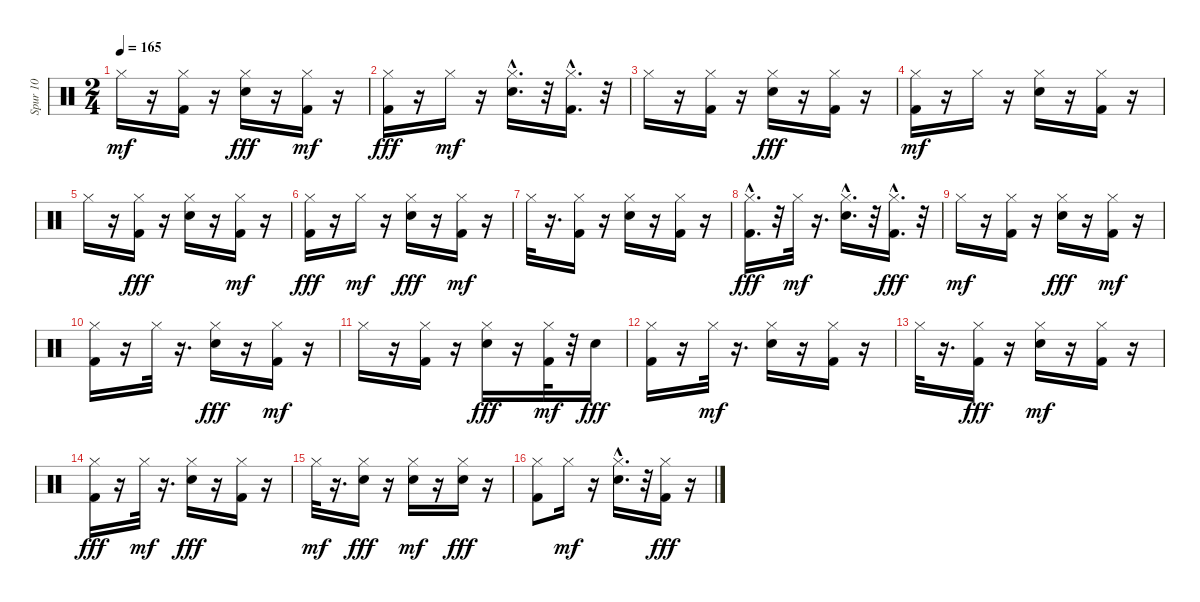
\track ("Spur 10" "Spur 10") {instrument percussion}
\staff {score}
\articulation defaults
\ts (2 4)
\tempo 165
\clef neutral
\ks c "Hi-Hat (closed)".16{dy mf}
r.16 ("Kick (hit) 2" "Hi-Hat (closed)").16 r.16 ("Hi-Hat (closed)" "Electric Snare (hit)").16{dy fff} r.16 ("Kick (hit) 2" "Hi-Hat (closed)").16{dy mf} r.16 |
("Hi-Hat (closed)" "Kick (hit) 2").16{dy fff} r.16 "Hi-Hat (closed)".16{dy mf} r.16 ("Electric Snare (hit)"{hac} "Hi-Hat (closed)").16{d} r.32 ("Kick (hit) 2"{hac} "Hi-Hat (closed)").16{d} r.32 |
"Hi-Hat (closed)".16 r.16 ("Kick (hit) 2" "Hi-Hat (closed)").16 r.16 ("Hi-Hat (closed)" "Electric Snare (hit)").16{dy fff} r.16 ("Hi-Hat (closed)" "Kick (hit) 2").16 r.16 |
("Kick (hit) 2" "Hi-Hat (closed)").16{dy mf} r.16 "Hi-Hat (closed)".16 r.16 ("Electric Snare (hit)" "Hi-Hat (closed)").16 r.16 ("Kick (hit) 2" "Hi-Hat (closed)").16 r.16 |
"Hi-Hat (closed)".16 r.16 ("Hi-Hat (closed)" "Kick (hit) 2").16{dy fff} r.16 ("Hi-Hat (closed)" "Electric Snare (hit)").16 r.16 ("Kick (hit) 2" "Hi-Hat (closed)").16{dy mf} r.16 |
("Hi-Hat (closed)" "Kick (hit) 2").16{dy fff} r.16 "Hi-Hat (closed)".16{dy mf} r.16 ("Hi-Hat (closed)" "Electric Snare (hit)").16{dy fff} r.16 ("Kick (hit) 2" "Hi-Hat (closed)").16{dy mf} r.16 |
"Hi-Hat (closed)".32 r.16{d} ("Kick (hit) 2" "Hi-Hat (closed)").16 r.16 ("Electric Snare (hit)" "Hi-Hat (closed)").16 r.16 ("Kick (hit) 2" "Hi-Hat (closed)").16 r.16 |
("Hi-Hat (closed)" "Kick (hit) 2"{hac}).16{d dy fff} r.32 "Hi-Hat (closed)".32{dy mf} r.16{d} ("Electric Snare (hit)"{hac} "Hi-Hat (closed)").16{d} r.32 ("Hi-Hat (closed)" "Kick (hit) 2"{hac}).16{d dy fff} r.32 |
"Hi-Hat (closed)".16{dy mf} r.16 ("Kick (hit) 2" "Hi-Hat (closed)").16 r.16 ("Hi-Hat (closed)" "Electric Snare (hit)").16{dy fff} r.16 ("Kick (hit) 2" "Hi-Hat (closed)").16{dy mf} r.16 |
("Kick (hit) 2" "Hi-Hat (closed)").16 r.16 "Hi-Hat (closed)".32 r.16{d} ("Hi-Hat (closed)" "Electric Snare (hit)").16{dy fff} r.16 ("Kick (hit) 2" "Hi-Hat (closed)").16{dy mf} r.16 |
"Hi-Hat (closed)".16 r.16 ("Kick (hit) 2" "Hi-Hat (closed)").16 r.16 ("Hi-Hat (closed)" "Electric Snare (hit)").16{dy fff} r.16 ("Kick (hit) 2" "Hi-Hat (closed)").32{dy mf} r.32 "Electric Snare (hit)".16{dy fff} |
("Hi-Hat (closed)" "Kick (hit) 2").16 r.16 "Hi-Hat (closed)".32{dy mf} r.16{d} ("Electric Snare (hit)" "Hi-Hat (closed)").16 r.16 ("Kick (hit) 2" "Hi-Hat (closed)").16 r.16 |
"Hi-Hat (closed)".32 r.16{d} ("Hi-Hat (closed)" "Kick (hit) 2").16{dy fff} r.16 ("Electric Snare (hit)" "Hi-Hat (closed)").16{dy mf} r.16 ("Kick (hit) 2" "Hi-Hat (closed)").16 r.16 |
("Hi-Hat (closed)" "Kick (hit) 2").16{dy fff} r.16 "Hi-Hat (closed)".32{dy mf} r.16{d} ("Hi-Hat (closed)" "Electric Snare (hit)").16{dy fff} r.16 ("Hi-Hat (closed)" "Kick (hit) 2").16 r.16 |
"Hi-Hat (closed)".32{dy mf} r.16{d} ("Hi-Hat (closed)" "Electric Snare (hit)").16{dy fff} r.16 ("Electric Snare (hit)" "Hi-Hat (closed)").16{dy mf} r.16 ("Hi-Hat (closed)" "Electric Snare (hit)").16{dy fff} r.16 |
("Hi-Hat (closed)" "Kick (hit) 2").8 "Hi-Hat (closed)".16{dy mf} r.16 ("Electric Snare (hit)"{hac} "Hi-Hat (closed)").16{d} r.32 ("Hi-Hat (closed)" "Kick (hit) 2").16{dy fff} r.16
